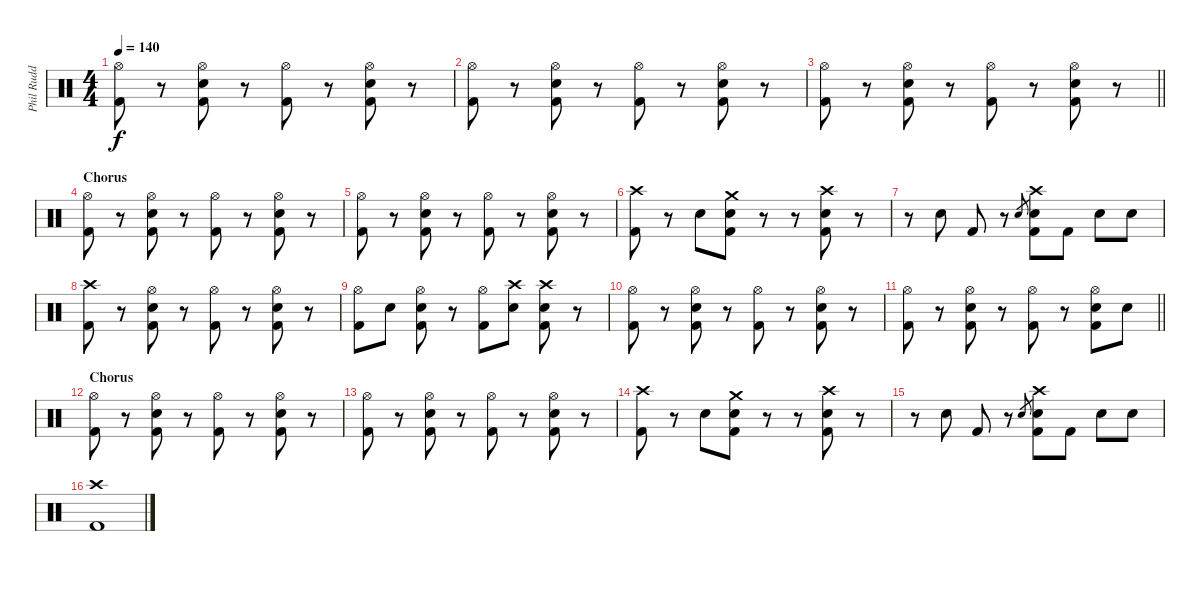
\track ("Phil Rudd" "Phil Rudd") {instrument percussion}
\staff {score}
\articulation defaults
\ts (4 4)
\tempo 140
\clef neutral
\ks c
("Hi-Hat (open)" "Kick (hit) 2").8{dy f} r.8 ("Hi-Hat (open)" "Electric Snare (hit)" "Kick (hit) 2").8 r.8 ("Hi-Hat (open)" "Kick (hit) 2").8 r.8 ("Hi-Hat (open)" "Electric Snare (hit)" "Kick (hit) 2").8 r.8 |
("Hi-Hat (open)" "Kick (hit) 2").8 r.8 ("Hi-Hat (open)" "Electric Snare (hit)" "Kick (hit) 2").8 r.8 ("Hi-Hat (open)" "Kick (hit) 2").8 r.8 ("Hi-Hat (open)" "Electric Snare (hit)" "Kick (hit) 2").8 r.8 |
\barLineRight lightlight
("Hi-Hat (open)" "Kick (hit) 2").8 r.8 ("Hi-Hat (open)" "Electric Snare (hit)" "Kick (hit) 2").8 r.8 ("Hi-Hat (open)" "Kick (hit) 2").8 r.8 ("Hi-Hat (open)" "Electric Snare (hit)" "Kick (hit) 2").8 r.8 |
\section ("" "Chorus")
("Hi-Hat (open)" "Kick (hit) 2").8 r.8 ("Hi-Hat (open)" "Electric Snare (hit)" "Kick (hit) 2").8 r.8 ("Hi-Hat (open)" "Kick (hit) 2").8 r.8 ("Hi-Hat (open)" "Electric Snare (hit)" "Kick (hit) 2").8 r.8 |
("Hi-Hat (open)" "Kick (hit) 2").8 r.8 ("Hi-Hat (open)" "Electric Snare (hit)" "Kick (hit) 2").8 r.8 ("Hi-Hat (open)" "Kick (hit) 2").8 r.8 ("Hi-Hat (open)" "Electric Snare (hit)" "Kick (hit) 2").8 r.8 |
("Crash high (hit)" "Kick (hit) 2").8 r.8 "Electric Snare (hit)".8 ("Crash medium (hit)" "Electric Snare (hit)" "Kick (hit) 2").8 r.8 r.8 ("Crash high (hit)" "Electric Snare (hit)" "Kick (hit) 2").8 r.8 |
r.8 "Electric Snare (hit)".8 "Kick (hit) 2".8 r.8 "Electric Snare (hit)".8{gr} ("Crash high (hit)" "Electric Snare (hit)" "Kick (hit) 2").8 "Kick (hit) 2".8 "Electric Snare (hit)".8 "Electric Snare (hit)".8 |
("Crash high (hit)" "Kick (hit) 2").8 r.8 ("Hi-Hat (open)" "Electric Snare (hit)" "Kick (hit) 2").8 r.8 ("Hi-Hat (open)" "Kick (hit) 2").8 r.8 ("Hi-Hat (open)" "Electric Snare (hit)" "Kick (hit) 2").8 r.8 |
("Hi-Hat (open)" "Kick (hit) 2").8 "Electric Snare (hit)".8 ("Hi-Hat (open)" "Electric Snare (hit)" "Kick (hit) 2").8 r.8 ("Hi-Hat (open)" "Kick (hit) 2").8 ("Crash high (hit)" "Electric Snare (hit)").8 ("Crash high (hit)" "Electric Snare (hit)" "Kick (hit) 2").8 r.8 |
("Hi-Hat (open)" "Kick (hit) 2").8 r.8 ("Hi-Hat (open)" "Electric Snare (hit)" "Kick (hit) 2").8 r.8 ("Hi-Hat (open)" "Kick (hit) 2").8 r.8 ("Hi-Hat (open)" "Electric Snare (hit)" "Kick (hit) 2").8 r.8 |
\barLineRight lightlight
("Hi-Hat (open)" "Kick (hit) 2").8 r.8 ("Hi-Hat (open)" "Electric Snare (hit)" "Kick (hit) 2").8 r.8 ("Hi-Hat (open)" "Kick (hit) 2").8 r.8 ("Hi-Hat (open)" "Electric Snare (hit)" "Kick (hit) 2").8 "Electric Snare (hit)".8 |
\section ("" "Chorus")
("Hi-Hat (open)" "Kick (hit) 2").8 r.8 ("Hi-Hat (open)" "Electric Snare (hit)" "Kick (hit) 2").8 r.8 ("Hi-Hat (open)" "Kick (hit) 2").8 r.8 ("Hi-Hat (open)" "Electric Snare (hit)" "Kick (hit) 2").8 r.8 |
("Hi-Hat (open)" "Kick (hit) 2").8 r.8 ("Hi-Hat (open)" "Electric Snare (hit)" "Kick (hit) 2").8 r.8 ("Hi-Hat (open)" "Kick (hit) 2").8 r.8 ("Hi-Hat (open)" "Electric Snare (hit)" "Kick (hit) 2").8 r.8 |
("Crash high (hit)" "Kick (hit) 2").8 r.8 "Electric Snare (hit)".8 ("Crash medium (hit)" "Electric Snare (hit)" "Kick (hit) 2").8 r.8 r.8 ("Crash high (hit)" "Electric Snare (hit)" "Kick (hit) 2").8 r.8 |
r.8 "Electric Snare (hit)".8 "Kick (hit) 2".8 r.8 "Electric Snare (hit)".8{gr} ("Crash high (hit)" "Electric Snare (hit)" "Kick (hit) 2").8 "Kick (hit) 2".8 "Electric Snare (hit)".8 "Electric Snare (hit)".8 |
("Crash high (hit)" "Kick (hit) 2").1
